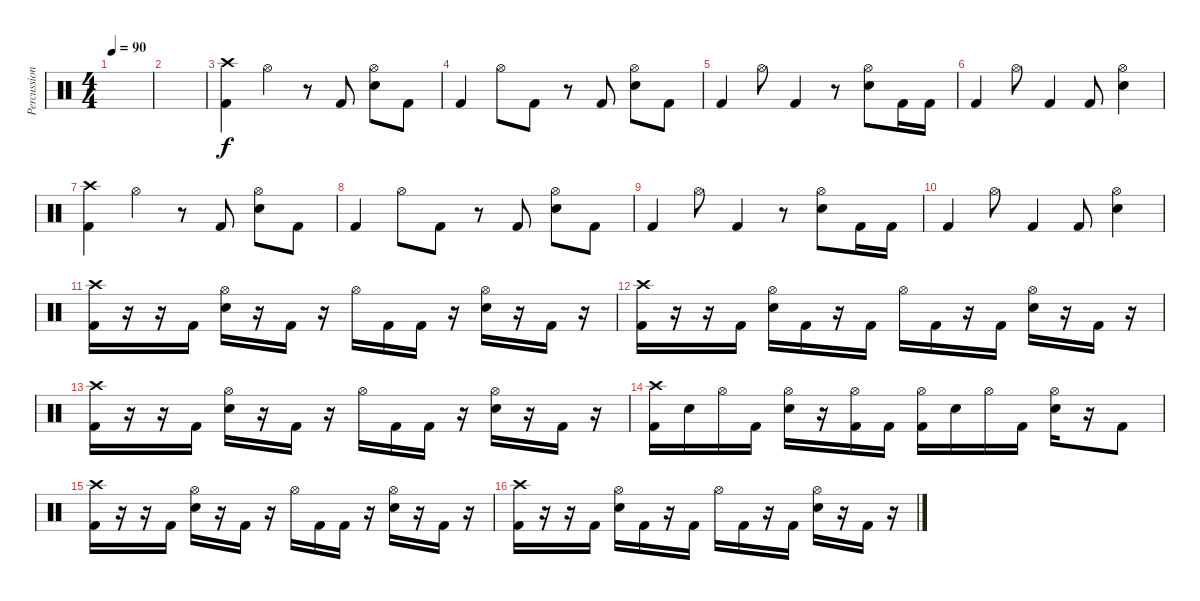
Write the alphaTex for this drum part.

\track ("Percussion" "Percussion") {instrument percussion}
\staff {score}
\articulation defaults
\ts (4 4)
\tempo 90
\clef neutral
\ks c
|
|
("Crash high (hit)" "Kick (hit) 2").4 "Hi-Hat (open)".4 r.8 "Kick (hit) 2".8 ("Hi-Hat (open)" "Snare (hit) 2").8 "Kick (hit) 2".8 |
"Kick (hit) 2".4 "Hi-Hat (open)".8 "Kick (hit) 2".8 r.8 "Kick (hit) 2".8 ("Hi-Hat (open)" "Snare (hit) 2").8 "Kick (hit) 2".8 |
"Kick (hit) 2".4 "Hi-Hat (open)".8 "Kick (hit) 2".4 r.8 ("Hi-Hat (open)" "Snare (hit) 2").8 "Kick (hit) 2".16 "Kick (hit) 2".16 |
"Kick (hit) 2".4 "Hi-Hat (open)".8 "Kick (hit) 2".4 "Kick (hit) 2".8 ("Hi-Hat (open)" "Snare (hit) 2").4 |
("Crash high (hit)" "Kick (hit) 2").4 "Hi-Hat (open)".4 r.8 "Kick (hit) 2".8 ("Hi-Hat (open)" "Snare (hit) 2").8 "Kick (hit) 2".8 |
"Kick (hit) 2".4 "Hi-Hat (open)".8 "Kick (hit) 2".8 r.8 "Kick (hit) 2".8 ("Hi-Hat (open)" "Snare (hit) 2").8 "Kick (hit) 2".8 |
"Kick (hit) 2".4 "Hi-Hat (open)".8 "Kick (hit) 2".4 r.8 ("Hi-Hat (open)" "Snare (hit) 2").8 "Kick (hit) 2".16 "Kick (hit) 2".16 |
"Kick (hit) 2".4 "Hi-Hat (open)".8 "Kick (hit) 2".4 "Kick (hit) 2".8 ("Hi-Hat (open)" "Snare (hit) 2").4 |
("Crash high (hit)" "Kick (hit) 2").16 r.16 r.16 "Kick (hit) 2".16 ("Hi-Hat (open)" "Snare (hit) 2").16 r.16 "Kick (hit) 2".16 r.16 "Hi-Hat (open)".16 "Kick (hit) 2".16 "Kick (hit) 2".16 r.16 ("Hi-Hat (open)" "Snare (hit) 2").16 r.16 "Kick (hit) 2".16 r.16 |
("Crash high (hit)" "Kick (hit) 2").16 r.16 r.16 "Kick (hit) 2".16 ("Hi-Hat (open)" "Snare (hit) 2").16 "Kick (hit) 2".16 r.16 "Kick (hit) 2".16 "Hi-Hat (open)".16 "Kick (hit) 2".16 r.16 "Kick (hit) 2".16 ("Hi-Hat (open)" "Snare (hit) 2").16 r.16 "Kick (hit) 2".16 r.16 |
("Crash high (hit)" "Kick (hit) 2").16 r.16 r.16 "Kick (hit) 2".16 ("Hi-Hat (open)" "Snare (hit) 2").16 r.16 "Kick (hit) 2".16 r.16 "Hi-Hat (open)".16 "Kick (hit) 2".16 "Kick (hit) 2".16 r.16 ("Hi-Hat (open)" "Snare (hit) 2").16 r.16 "Kick (hit) 2".16 r.16 |
("Crash high (hit)" "Kick (hit) 2").16 "Snare (hit) 2".16 "Hi-Hat (open)".16 "Kick (hit) 2".16 ("Hi-Hat (open)" "Snare (hit) 2").16 r.16 ("Hi-Hat (open)" "Kick (hit) 2").16 "Kick (hit) 2".16 ("Hi-Hat (open)" "Kick (hit) 2").16 "Snare (hit) 2".16 "Hi-Hat (open)".16 "Kick (hit) 2".16 ("Hi-Hat (open)" "Snare (hit) 2").16 r.16 "Kick (hit) 2".8 |
("Crash high (hit)" "Kick (hit) 2").16 r.16 r.16 "Kick (hit) 2".16 ("Hi-Hat (open)" "Snare (hit) 2").16 r.16 "Kick (hit) 2".16 r.16 "Hi-Hat (open)".16 "Kick (hit) 2".16 "Kick (hit) 2".16 r.16 ("Hi-Hat (open)" "Snare (hit) 2").16 r.16 "Kick (hit) 2".16 r.16 |
("Crash high (hit)" "Kick (hit) 2").16 r.16 r.16 "Kick (hit) 2".16 ("Hi-Hat (open)" "Snare (hit) 2").16 "Kick (hit) 2".16 r.16 "Kick (hit) 2".16 "Hi-Hat (open)".16 "Kick (hit) 2".16 r.16 "Kick (hit) 2".16 ("Hi-Hat (open)" "Snare (hit) 2").16 r.16 "Kick (hit) 2".16 r.16
